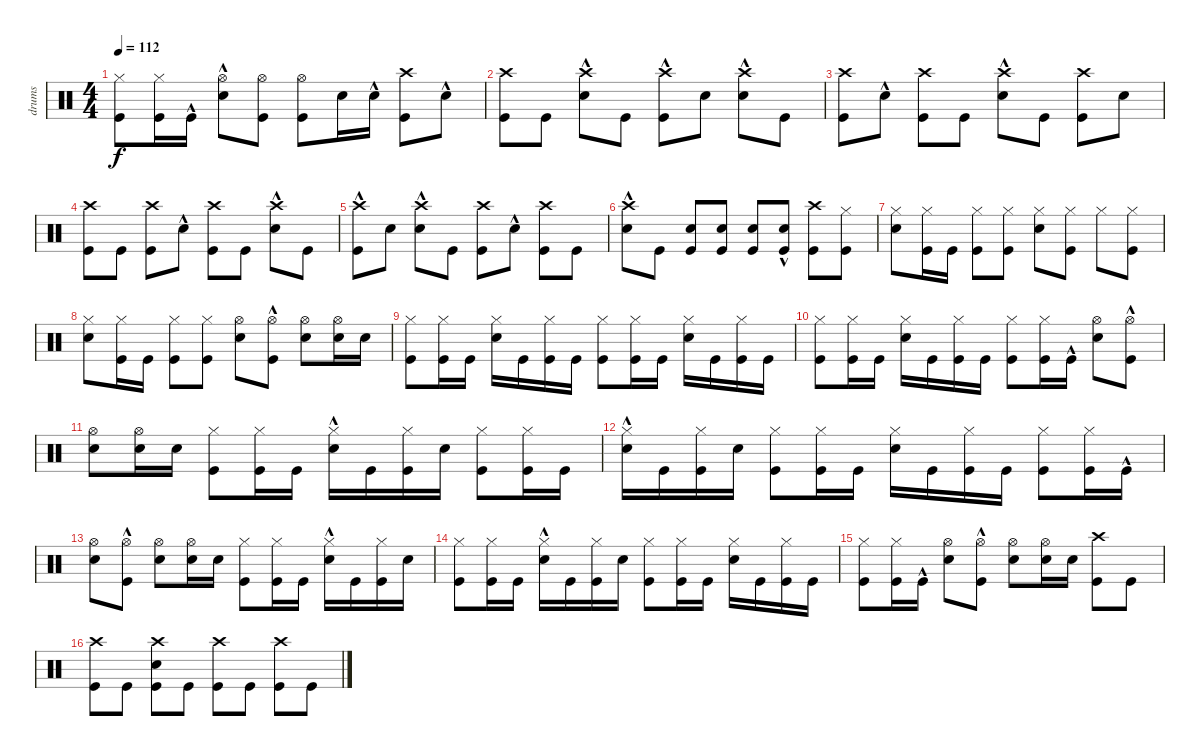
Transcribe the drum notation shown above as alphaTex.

\track ("drums" "drums") {instrument percussion}
\staff {score}
\articulation defaults
\ts (4 4)
\tempo 112
\clef neutral
\ks c
("Kick (hit)" "Hi-Hat (closed)").8{dy f} ("Kick (hit)" "Hi-Hat (closed)").16 "Kick (hit)"{hac}.16 ("Snare (hit) 2"{hac} "Hi-Hat (open)").8 ("Kick (hit)" "Hi-Hat (open)").8 ("Kick (hit)" "Hi-Hat (open)").8 "Snare (hit) 2".16 "Snare (hit) 2"{hac}.16 ("Kick (hit)" "Crash high (hit)").8 "Snare (hit) 2"{hac}.8 |
("Kick (hit)" "Crash high (hit)").8 "Kick (hit)".8 ("Snare (hit) 2"{hac} "Crash high (hit)").8 "Kick (hit)".8 ("Kick (hit)"{hac} "Crash high (hit)").8 "Snare (hit) 2".8 ("Snare (hit) 2"{hac} "Crash high (hit)").8 "Kick (hit)".8 |
("Kick (hit)" "Crash high (hit)").8 "Snare (hit) 2"{hac}.8 ("Kick (hit)" "Crash high (hit)").8 "Kick (hit)".8 ("Snare (hit) 2"{hac} "Crash high (hit)").8 "Kick (hit)".8 ("Kick (hit)" "Crash high (hit)").8 "Snare (hit) 2".8 |
("Kick (hit)" "Crash high (hit)").8 "Kick (hit)".8 ("Kick (hit)" "Crash high (hit)").8 "Snare (hit) 2"{hac}.8 ("Kick (hit)" "Crash high (hit)").8 "Kick (hit)".8 ("Snare (hit) 2"{hac} "Crash high (hit)").8 "Kick (hit)".8 |
("Kick (hit)"{hac} "Crash high (hit)").8 "Snare (hit) 2".8 ("Snare (hit) 2"{hac} "Crash high (hit)").8 "Kick (hit)".8 ("Kick (hit)" "Crash high (hit)").8 "Snare (hit) 2"{hac}.8 ("Kick (hit)" "Crash high (hit)").8 "Kick (hit)".8 |
("Snare (hit) 2" "Crash high (hit)"{hac}).8 "Kick (hit)".8 ("Kick (hit)" "Snare (hit) 2").8 ("Kick (hit)" "Snare (hit) 2").8 ("Kick (hit)" "Snare (hit) 2").8 ("Kick (hit)" "Snare (hit) 2"{hac}).8 ("Kick (hit)" "Crash high (hit)").8 ("Kick (hit)" "Hi-Hat (closed)").8 |
("Snare (hit) 2" "Hi-Hat (closed)").8 ("Kick (hit)" "Hi-Hat (closed)").16 "Kick (hit)".16 ("Kick (hit)" "Hi-Hat (closed)").8 ("Kick (hit)" "Hi-Hat (closed)").8 ("Snare (hit) 2" "Hi-Hat (closed)").8 ("Kick (hit)" "Hi-Hat (closed)").8 "Hi-Hat (closed)".8 ("Kick (hit)" "Hi-Hat (closed)").8 |
("Snare (hit) 2" "Hi-Hat (closed)").8 ("Kick (hit)" "Hi-Hat (closed)").16 "Kick (hit)".16 ("Kick (hit)" "Hi-Hat (closed)").8 ("Kick (hit)" "Hi-Hat (closed)").8 ("Snare (hit) 2" "Hi-Hat (open)").8 ("Kick (hit)"{hac} "Hi-Hat (open)").8 ("Snare (hit) 2" "Hi-Hat (open)").8 ("Snare (hit) 2" "Hi-Hat (open)").16 "Snare (hit) 2".16 |
("Kick (hit)" "Hi-Hat (closed)").8 ("Kick (hit)" "Hi-Hat (closed)").16 "Kick (hit)".16 ("Snare (hit) 2" "Hi-Hat (closed)").16 "Kick (hit)".16 ("Kick (hit)" "Hi-Hat (closed)").16 "Kick (hit)".16 ("Kick (hit)" "Hi-Hat (closed)").8 ("Kick (hit)" "Hi-Hat (closed)").16 "Kick (hit)".16 ("Snare (hit) 2" "Hi-Hat (closed)").16 "Kick (hit)".16 ("Kick (hit)" "Hi-Hat (closed)").16 "Kick (hit)".16 |
("Kick (hit)" "Hi-Hat (closed)").8 ("Kick (hit)" "Hi-Hat (closed)").16 "Kick (hit)".16 ("Snare (hit) 2" "Hi-Hat (closed)").16 "Kick (hit)".16 ("Kick (hit)" "Hi-Hat (closed)").16 "Kick (hit)".16 ("Kick (hit)" "Hi-Hat (closed)").8 ("Kick (hit)" "Hi-Hat (closed)").16 "Kick (hit)"{hac}.16 ("Snare (hit) 2" "Hi-Hat (open)").8 ("Kick (hit)"{hac} "Hi-Hat (open)").8 |
("Snare (hit) 2" "Hi-Hat (open)").8 ("Snare (hit) 2" "Hi-Hat (open)").16 "Snare (hit) 2".16 ("Kick (hit)" "Hi-Hat (closed)").8 ("Kick (hit)" "Hi-Hat (closed)").16 "Kick (hit)".16 ("Snare (hit) 2"{hac} "Hi-Hat (closed)").16 "Kick (hit)".16 ("Kick (hit)" "Hi-Hat (closed)").16 "Snare (hit) 2".16 ("Kick (hit)" "Hi-Hat (closed)").8 ("Kick (hit)" "Hi-Hat (closed)").16 "Kick (hit)".16 |
("Snare (hit) 2"{hac} "Hi-Hat (closed)").16 "Kick (hit)".16 ("Kick (hit)" "Hi-Hat (closed)").16 "Snare (hit) 2".16 ("Kick (hit)" "Hi-Hat (closed)").8 ("Kick (hit)" "Hi-Hat (closed)").16 "Kick (hit)".16 ("Snare (hit) 2" "Hi-Hat (closed)").16 "Kick (hit)".16 ("Kick (hit)" "Hi-Hat (closed)").16 "Kick (hit)".16 ("Kick (hit)" "Hi-Hat (closed)").8 ("Kick (hit)" "Hi-Hat (closed)").16 "Kick (hit)"{hac}.16 |
("Snare (hit) 2" "Hi-Hat (open)").8 ("Kick (hit)"{hac} "Hi-Hat (open)").8 ("Snare (hit) 2" "Hi-Hat (open)").8 ("Snare (hit) 2" "Hi-Hat (open)").16 "Snare (hit) 2".16 ("Kick (hit)" "Hi-Hat (closed)").8 ("Kick (hit)" "Hi-Hat (closed)").16 "Kick (hit)".16 ("Snare (hit) 2"{hac} "Hi-Hat (closed)").16 "Kick (hit)".16 ("Kick (hit)" "Hi-Hat (closed)").16 "Snare (hit) 2".16 |
("Kick (hit)" "Hi-Hat (closed)").8 ("Kick (hit)" "Hi-Hat (closed)").16 "Kick (hit)".16 ("Snare (hit) 2"{hac} "Hi-Hat (closed)").16 "Kick (hit)".16 ("Kick (hit)" "Hi-Hat (closed)").16 "Snare (hit) 2".16 ("Kick (hit)" "Hi-Hat (closed)").8 ("Kick (hit)" "Hi-Hat (closed)").16 "Kick (hit)".16 ("Snare (hit) 2" "Hi-Hat (closed)").16 "Kick (hit)".16 ("Kick (hit)" "Hi-Hat (closed)").16 "Kick (hit)".16 |
("Kick (hit)" "Hi-Hat (closed)").8 ("Kick (hit)" "Hi-Hat (closed)").16 "Kick (hit)"{hac}.16 ("Snare (hit) 2" "Hi-Hat (open)").8 ("Kick (hit)"{hac} "Hi-Hat (open)").8 ("Snare (hit) 2" "Hi-Hat (open)").8 ("Snare (hit) 2" "Hi-Hat (open)").16 "Snare (hit) 2".16 ("Kick (hit)" "Crash high (hit)").8 "Kick (hit)".8 |
("Kick (hit)" "Crash high (hit)").8 "Kick (hit)".8 ("Kick (hit)" "Snare (hit) 2" "Crash high (hit)").8 "Kick (hit)".8 ("Kick (hit)" "Crash high (hit)").8 "Kick (hit)".8 ("Kick (hit)" "Crash high (hit)").8 "Kick (hit)".8
